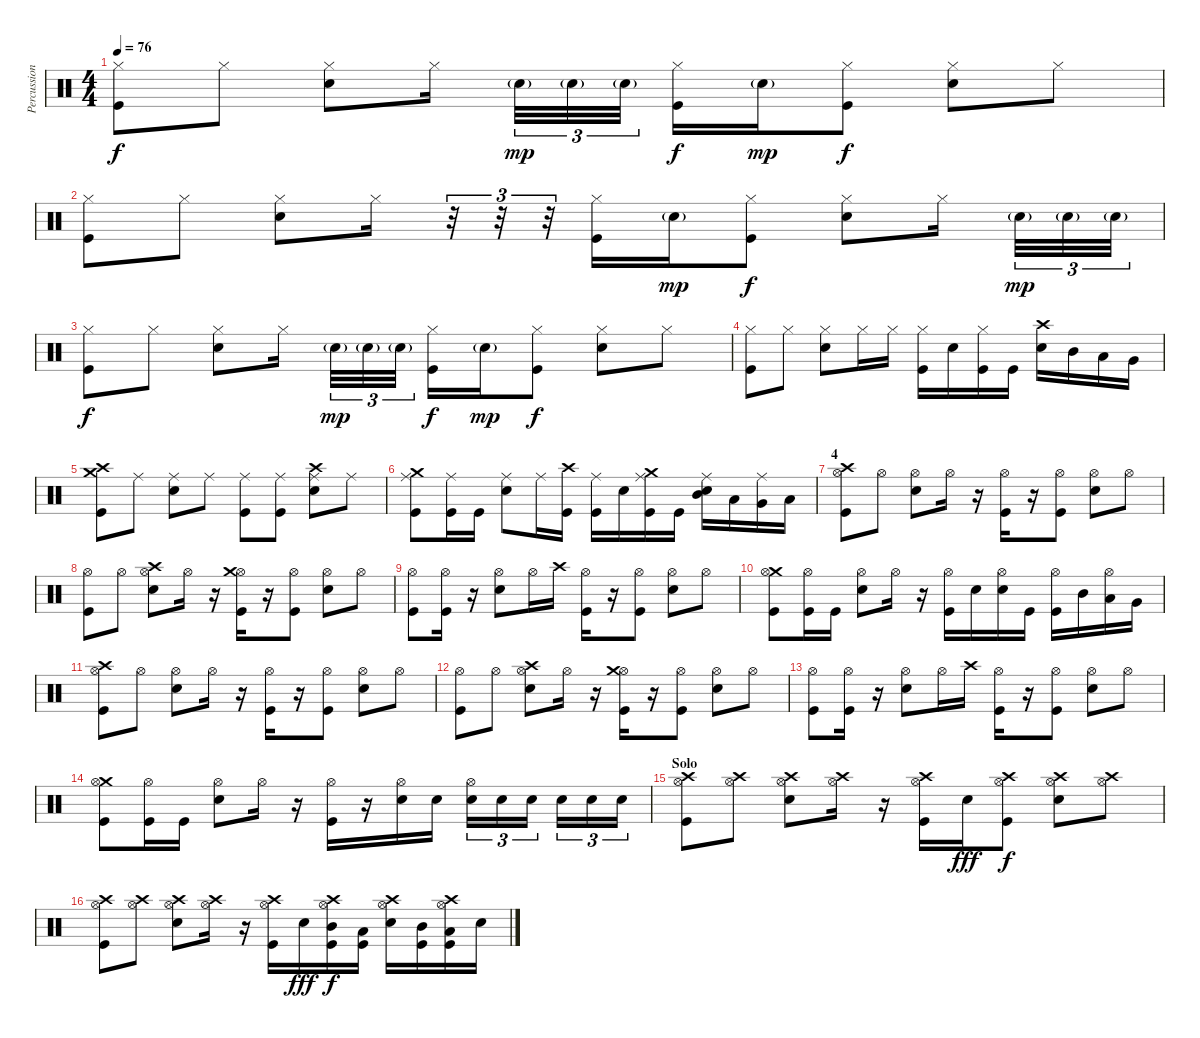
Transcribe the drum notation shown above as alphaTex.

\track ("Percussions" "Percussion") {instrument percussion}
\staff {score}
\articulation defaults
\ts (4 4)
\tempo 76
\clef neutral
\ks c
("Hi-Hat (closed)" "Kick (hit)").8{dy f} "Hi-Hat (closed)".8 ("Hi-Hat (closed)" "Snare (hit) 2").8 "Hi-Hat (closed)".16 "Snare (hit) 2"{g}.32{tu (3 2) dy mp} "Snare (hit) 2"{g}.32{tu (3 2)} "Snare (hit) 2"{g}.32{tu (3 2)} ("Hi-Hat (closed)" "Kick (hit)").16{dy f} "Snare (hit) 2"{g}.16{dy mp} ("Hi-Hat (closed)" "Kick (hit)").8{dy f} ("Hi-Hat (closed)" "Snare (hit) 2").8 "Hi-Hat (closed)".8 |
("Hi-Hat (closed)" "Kick (hit)").8 "Hi-Hat (closed)".8 ("Hi-Hat (closed)" "Snare (hit) 2").8 "Hi-Hat (closed)".16 r.32{tu (3 2)} r.32{tu (3 2)} r.32{tu (3 2)} ("Hi-Hat (closed)" "Kick (hit)").16 "Snare (hit) 2"{g}.16{dy mp} ("Hi-Hat (closed)" "Kick (hit)").8{dy f} ("Hi-Hat (closed)" "Snare (hit) 2").8 "Hi-Hat (closed)".16 "Snare (hit) 2"{g}.32{tu (3 2) dy mp} "Snare (hit) 2"{g}.32{tu (3 2)} "Snare (hit) 2"{g}.32{tu (3 2)} |
("Hi-Hat (closed)" "Kick (hit)").8{dy f} "Hi-Hat (closed)".8 ("Hi-Hat (closed)" "Snare (hit) 2").8 "Hi-Hat (closed)".16 "Snare (hit) 2"{g}.32{tu (3 2) dy mp} "Snare (hit) 2"{g}.32{tu (3 2)} "Snare (hit) 2"{g}.32{tu (3 2)} ("Hi-Hat (closed)" "Kick (hit)").16{dy f} "Snare (hit) 2"{g}.16{dy mp} ("Hi-Hat (closed)" "Kick (hit)").8{dy f} ("Hi-Hat (closed)" "Snare (hit) 2").8 "Hi-Hat (closed)".8 |
("Hi-Hat (closed)" "Kick (hit)").8 "Hi-Hat (closed)".8 ("Hi-Hat (closed)" "Snare (hit) 2").8 "Hi-Hat (closed)".16 "Hi-Hat (closed)".16 ("Hi-Hat (closed)" "Kick (hit)").16 "Snare (hit) 2".16 ("Hi-Hat (closed)" "Kick (hit)").16 "Kick (hit)".16 ("Crash high (hit)" "Snare (hit) 2").16 "Mid Tom (hit)".16 "Low Tom (hit)".16 "Very Low Tom (hit)".16 |
("Crash high (hit)" "Crash medium (hit)" "Kick (hit)").8 "Ride (middle)".8 ("Ride (middle)" "Snare (hit) 2").8 "Ride (middle)".8 ("Ride (middle)" "Kick (hit)").8 ("Ride (middle)" "Kick (hit)").8 ("Ride (middle)" "Crash high (hit)" "Snare (hit) 2").8 "Ride (middle)".8 |
("Ride (middle)" "Crash medium (hit)" "Kick (hit)").8 ("Ride (middle)" "Kick (hit)").16 "Kick (hit)".16 ("Ride (middle)" "Snare (hit) 2").8 "Ride (middle)".16 ("Crash high (hit)" "Kick (hit)").16 ("Ride (middle)" "Kick (hit)").16 "Snare (hit) 2".16 ("Ride (middle)" "Crash medium (hit)" "Kick (hit)").16 "Kick (hit)".16 ("Ride (middle)" "Mid Tom (hit)" "Snare (hit) 2").16 "Low Tom (hit)".16 ("Ride (middle)" "Very Low Tom (hit)").16 "Low Floor Tom (hit)".16 |
\section ("" "4")
("Crash high (hit)" "Hi-Hat (open)" "Kick (hit)").8 "Hi-Hat (open)".8 ("Hi-Hat (open)" "Snare (hit) 2").8 "Hi-Hat (open)".16 r.16 ("Hi-Hat (open)" "Kick (hit)").16 r.16 ("Hi-Hat (open)" "Kick (hit)").8 ("Hi-Hat (open)" "Snare (hit) 2").8 "Hi-Hat (open)".8 |
("Hi-Hat (open)" "Kick (hit)").8 "Hi-Hat (open)".8 ("Hi-Hat (open)" "Crash high (hit)" "Snare (hit) 2").8 "Hi-Hat (open)".16 r.16 ("Hi-Hat (open)" "Crash medium (hit)" "Kick (hit)").16 r.16 ("Hi-Hat (open)" "Kick (hit)").8 ("Hi-Hat (open)" "Snare (hit) 2").8 "Hi-Hat (open)".8 |
("Hi-Hat (open)" "Kick (hit)").8 ("Hi-Hat (open)" "Kick (hit)").16 r.16 ("Hi-Hat (open)" "Snare (hit) 2").8 "Hi-Hat (open)".16 "Crash high (hit)".16 ("Hi-Hat (open)" "Kick (hit)").16 r.16 ("Hi-Hat (open)" "Kick (hit)").8 ("Hi-Hat (open)" "Snare (hit) 2").8 "Hi-Hat (open)".8 |
("Crash medium (hit)" "Hi-Hat (open)" "Kick (hit)").8 ("Hi-Hat (open)" "Kick (hit)").16 "Kick (hit)".16 ("Hi-Hat (open)" "Snare (hit) 2").8 "Hi-Hat (open)".16 r.16 ("Hi-Hat (open)" "Kick (hit)").16 "Snare (hit) 2".16 ("Hi-Hat (open)" "Snare (hit) 2").16 "Kick (hit)".16 ("Hi-Hat (open)" "Kick (hit)").16 "Mid Tom (hit)".16 ("Hi-Hat (open)" "Low Tom (hit)").16 "Very Low Tom (hit)".16 |
("Crash high (hit)" "Hi-Hat (open)" "Kick (hit)").8 "Hi-Hat (open)".8 ("Hi-Hat (open)" "Snare (hit) 2").8 "Hi-Hat (open)".16 r.16 ("Hi-Hat (open)" "Kick (hit)").16 r.16 ("Hi-Hat (open)" "Kick (hit)").8 ("Hi-Hat (open)" "Snare (hit) 2").8 "Hi-Hat (open)".8 |
("Hi-Hat (open)" "Kick (hit)").8 "Hi-Hat (open)".8 ("Hi-Hat (open)" "Crash high (hit)" "Snare (hit) 2").8 "Hi-Hat (open)".16 r.16 ("Hi-Hat (open)" "Crash medium (hit)" "Kick (hit)").16 r.16 ("Hi-Hat (open)" "Kick (hit)").8 ("Hi-Hat (open)" "Snare (hit) 2").8 "Hi-Hat (open)".8 |
("Hi-Hat (open)" "Kick (hit)").8 ("Hi-Hat (open)" "Kick (hit)").16 r.16 ("Hi-Hat (open)" "Snare (hit) 2").8 "Hi-Hat (open)".16 "Crash high (hit)".16 ("Hi-Hat (open)" "Kick (hit)").16 r.16 ("Hi-Hat (open)" "Kick (hit)").8 ("Hi-Hat (open)" "Snare (hit) 2").8 "Hi-Hat (open)".8 |
("Crash medium (hit)" "Hi-Hat (open)" "Kick (hit)").8 ("Hi-Hat (open)" "Kick (hit)").16 "Kick (hit)".16 ("Hi-Hat (open)" "Snare (hit) 2").8 "Hi-Hat (open)".16 r.16 ("Hi-Hat (open)" "Kick (hit)").16 r.16 ("Hi-Hat (open)" "Snare (hit) 2").16 "Snare (hit) 2".16 ("Hi-Hat (open)" "Snare (hit) 2").16{tu (3 2)} "Snare (hit) 2".16{tu (3 2)} "Snare (hit) 2".16{tu (3 2)} "Snare (hit) 2".16{tu (3 2)} "Snare (hit) 2".16{tu (3 2)} "Snare (hit) 2".16{tu (3 2)} |
\section ("" "Solo")
("Crash high (hit)" "Hi-Hat (open)" "Kick (hit)").8 ("Crash high (hit)" "Hi-Hat (open)").8 ("Crash high (hit)" "Hi-Hat (open)" "Snare (hit) 2").8 ("Crash high (hit)" "Hi-Hat (open)").16 r.16 ("Crash high (hit)" "Hi-Hat (open)" "Kick (hit)").16 "Snare (hit) 2".16{dy fff} ("Crash high (hit)" "Hi-Hat (open)" "Kick (hit)").8{dy f} ("Crash high (hit)" "Hi-Hat (open)" "Snare (hit) 2").8 ("Crash high (hit)" "Hi-Hat (open)").8 |
("Crash high (hit)" "Hi-Hat (open)" "Kick (hit)").8 ("Crash high (hit)" "Hi-Hat (open)").8 ("Crash high (hit)" "Hi-Hat (open)" "Snare (hit) 2").8 ("Crash high (hit)" "Hi-Hat (open)").16 r.16 ("Crash high (hit)" "Hi-Hat (open)" "Kick (hit)").16 "Snare (hit) 2".16{dy fff} ("Crash high (hit)" "Hi-Hat (open)" "Mid Tom (hit)" "Kick (hit)").16{dy f} ("Low Tom (hit)" "Kick (hit)").16 ("Crash high (hit)" "Hi-Hat (open)" "Snare (hit) 2").16 ("Mid Tom (hit)" "Kick (hit)").16 ("Crash high (hit)" "Hi-Hat (open)" "Low Tom (hit)" "Kick (hit)").16 "Snare (hit) 2".16
